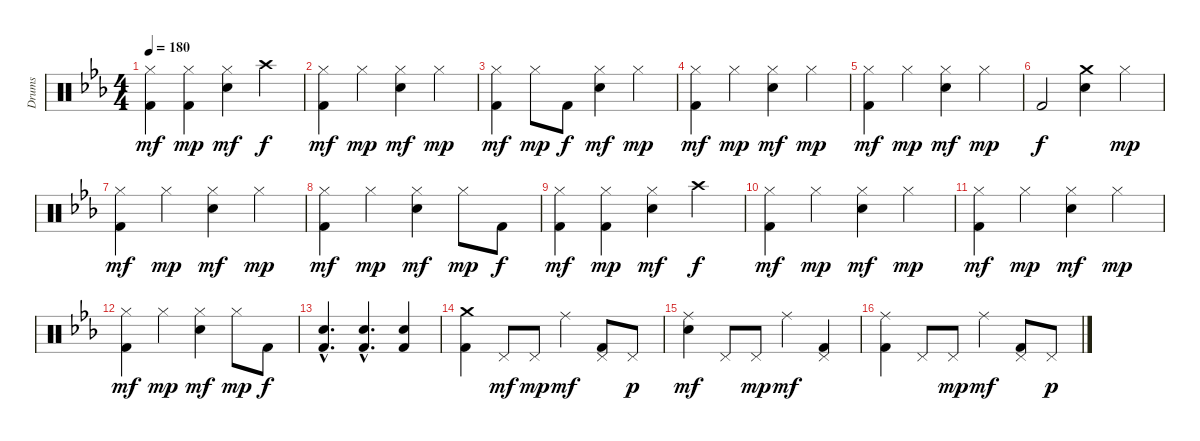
\track ("Drums" "Drums") {instrument percussion}
\staff {score}
\articulation defaults
\ts (4 4)
\tempo 180
\clef neutral
\ks eb
("Hi-Hat (closed)" "Kick (hit) 2").4{dy mf} ("Hi-Hat (closed)" "Kick (hit) 2").4{dy mp} ("Hi-Hat (closed)" "Electric Snare (hit)").4{dy mf} "Crash high (hit)".4{dy f} |
("Hi-Hat (closed)" "Kick (hit) 2").4{dy mf} "Hi-Hat (closed)".4{dy mp} ("Hi-Hat (closed)" "Electric Snare (hit)").4{dy mf} "Hi-Hat (closed)".4{dy mp} |
("Hi-Hat (closed)" "Kick (hit) 2").4{dy mf} "Hi-Hat (closed)".8{dy mp} "Kick (hit) 2".8{dy f} ("Hi-Hat (closed)" "Electric Snare (hit)").4{dy mf} "Hi-Hat (closed)".4{dy mp} |
("Hi-Hat (closed)" "Kick (hit) 2").4{dy mf} "Hi-Hat (closed)".4{dy mp} ("Hi-Hat (closed)" "Electric Snare (hit)").4{dy mf} "Hi-Hat (closed)".4{dy mp} |
("Hi-Hat (closed)" "Kick (hit) 2").4{dy mf} "Hi-Hat (closed)".4{dy mp} ("Hi-Hat (closed)" "Electric Snare (hit)").4{dy mf} "Hi-Hat (closed)".4{dy mp} |
"Kick (hit) 2".2{dy f} ("Crash medium (hit)" "Electric Snare (hit)").4 "Hi-Hat (closed)".4{dy mp} |
("Hi-Hat (closed)" "Kick (hit) 2").4{dy mf} "Hi-Hat (closed)".4{dy mp} ("Hi-Hat (closed)" "Electric Snare (hit)").4{dy mf} "Hi-Hat (closed)".4{dy mp} |
("Hi-Hat (closed)" "Kick (hit) 2").4{dy mf} "Hi-Hat (closed)".4{dy mp} ("Hi-Hat (closed)" "Electric Snare (hit)").4{dy mf} "Hi-Hat (closed)".8{dy mp} "Kick (hit) 2".8{dy f} |
("Hi-Hat (closed)" "Kick (hit) 2").4{dy mf} ("Hi-Hat (closed)" "Kick (hit) 2").4{dy mp} ("Hi-Hat (closed)" "Electric Snare (hit)").4{dy mf} "Crash high (hit)".4{dy f} |
("Hi-Hat (closed)" "Kick (hit) 2").4{dy mf} "Hi-Hat (closed)".4{dy mp} ("Hi-Hat (closed)" "Electric Snare (hit)").4{dy mf} "Hi-Hat (closed)".4{dy mp} |
("Hi-Hat (closed)" "Kick (hit) 2").4{dy mf} "Hi-Hat (closed)".4{dy mp} ("Hi-Hat (closed)" "Electric Snare (hit)").4{dy mf} "Hi-Hat (closed)".4{dy mp} |
("Hi-Hat (closed)" "Kick (hit) 2").4{dy mf} "Hi-Hat (closed)".4{dy mp} ("Hi-Hat (closed)" "Electric Snare (hit)").4{dy mf} "Hi-Hat (closed)".8{dy mp} "Kick (hit) 2".8{dy f} |
("Electric Snare (hit)"{hac} "Kick (hit) 2"{hac}).4{d} ("Electric Snare (hit)"{hac} "Kick (hit) 2"{hac}).4{d} ("Electric Snare (hit)" "Kick (hit) 2").4 |
("Crash medium (hit)" "Kick (hit) 2").4 "Pedal Hi-Hat (hit)".8{dy mf} "Pedal Hi-Hat (hit)".8{dy mp} "Ride (middle)".4{dy mf} ("Pedal Hi-Hat (hit)" "Kick (hit) 2").8 "Pedal Hi-Hat (hit)".8{dy p} |
("Ride (middle)" "Electric Snare (hit)").4{dy mf} "Pedal Hi-Hat (hit)".8 "Pedal Hi-Hat (hit)".8{dy mp} "Ride (middle)".4{dy mf} ("Pedal Hi-Hat (hit)" "Kick (hit) 2").4 |
("Ride (middle)" "Kick (hit) 2").4 "Pedal Hi-Hat (hit)".8 "Pedal Hi-Hat (hit)".8{dy mp} "Ride (middle)".4{dy mf} ("Pedal Hi-Hat (hit)" "Kick (hit) 2").8 "Pedal Hi-Hat (hit)".8{dy p}
